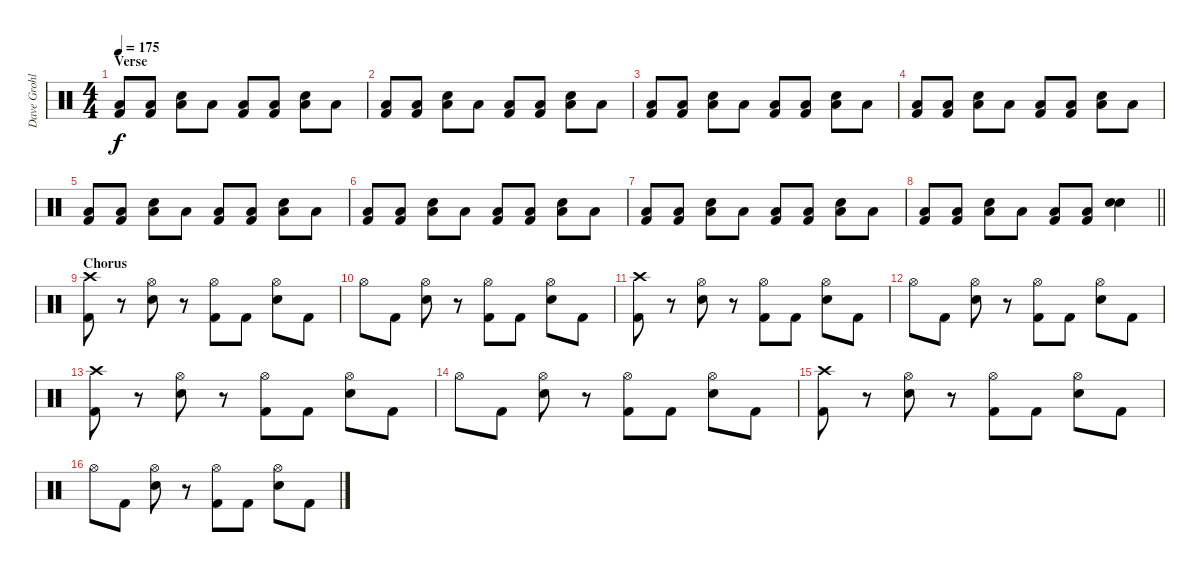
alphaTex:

\track ("Dave Grohl" "Dave Grohl") {solo instrument percussion}
\staff {score}
\articulation defaults
\ts (4 4)
\section ("" "Verse")
\tempo 175
\clef neutral
\ks c
("Low Tom (hit)" "Kick (hit) 2").8{dy f} ("Low Tom (hit)" "Kick (hit) 2").8 ("Electric Snare (hit)" "Low Tom (hit)").8 "Low Tom (hit)".8 ("Low Tom (hit)" "Kick (hit) 2").8 ("Low Tom (hit)" "Kick (hit) 2").8 ("Electric Snare (hit)" "Low Tom (hit)").8 "Low Tom (hit)".8 |
("Low Tom (hit)" "Kick (hit) 2").8 ("Low Tom (hit)" "Kick (hit) 2").8 ("Electric Snare (hit)" "Low Tom (hit)").8 "Low Tom (hit)".8 ("Low Tom (hit)" "Kick (hit) 2").8 ("Low Tom (hit)" "Kick (hit) 2").8 ("Electric Snare (hit)" "Low Tom (hit)").8 "Low Tom (hit)".8 |
("Low Tom (hit)" "Kick (hit) 2").8 ("Low Tom (hit)" "Kick (hit) 2").8 ("Electric Snare (hit)" "Low Tom (hit)").8 "Low Tom (hit)".8 ("Low Tom (hit)" "Kick (hit) 2").8 ("Low Tom (hit)" "Kick (hit) 2").8 ("Electric Snare (hit)" "Low Tom (hit)").8 "Low Tom (hit)".8 |
("Low Tom (hit)" "Kick (hit) 2").8 ("Low Tom (hit)" "Kick (hit) 2").8 ("Electric Snare (hit)" "Low Tom (hit)").8 "Low Tom (hit)".8 ("Low Tom (hit)" "Kick (hit) 2").8 ("Low Tom (hit)" "Kick (hit) 2").8 ("Electric Snare (hit)" "Low Tom (hit)").8 "Low Tom (hit)".8 |
("Low Tom (hit)" "Kick (hit) 2").8 ("Low Tom (hit)" "Kick (hit) 2").8 ("Electric Snare (hit)" "Low Tom (hit)").8 "Low Tom (hit)".8 ("Low Tom (hit)" "Kick (hit) 2").8 ("Low Tom (hit)" "Kick (hit) 2").8 ("Electric Snare (hit)" "Low Tom (hit)").8 "Low Tom (hit)".8 |
("Low Tom (hit)" "Kick (hit) 2").8 ("Low Tom (hit)" "Kick (hit) 2").8 ("Electric Snare (hit)" "Low Tom (hit)").8 "Low Tom (hit)".8 ("Low Tom (hit)" "Kick (hit) 2").8 ("Low Tom (hit)" "Kick (hit) 2").8 ("Electric Snare (hit)" "Low Tom (hit)").8 "Low Tom (hit)".8 |
("Low Tom (hit)" "Kick (hit) 2").8 ("Low Tom (hit)" "Kick (hit) 2").8 ("Electric Snare (hit)" "Low Tom (hit)").8 "Low Tom (hit)".8 ("Low Tom (hit)" "Kick (hit) 2").8 ("Low Tom (hit)" "Kick (hit) 2").8 ("Electric Snare (hit)" "Low Tom (hit)").8 "Low Tom (hit)".8 |
\barLineRight lightlight
("Low Tom (hit)" "Kick (hit) 2").8 ("Low Tom (hit)" "Kick (hit) 2").8 ("Electric Snare (hit)" "Low Tom (hit)").8 "Low Tom (hit)".8 ("Low Tom (hit)" "Kick (hit) 2").8 ("Low Tom (hit)" "Kick (hit) 2").8 ("Electric Snare (hit)" "Electric Snare (hit)").4 |
\section ("" "Chorus")
("Crash high (hit)" "Kick (hit) 2").8 r.8 ("Hi-Hat (open)" "Electric Snare (hit)").8 r.8 ("Hi-Hat (open)" "Kick (hit) 2").8 "Kick (hit) 2".8 ("Hi-Hat (open)" "Electric Snare (hit)").8 "Kick (hit) 2".8 |
"Hi-Hat (open)".8 "Kick (hit) 2".8 ("Hi-Hat (open)" "Electric Snare (hit)").8 r.8 ("Hi-Hat (open)" "Kick (hit) 2").8 "Kick (hit) 2".8 ("Hi-Hat (open)" "Electric Snare (hit)").8 "Kick (hit) 2".8 |
("Crash high (hit)" "Kick (hit) 2").8 r.8 ("Hi-Hat (open)" "Electric Snare (hit)").8 r.8 ("Hi-Hat (open)" "Kick (hit) 2").8 "Kick (hit) 2".8 ("Hi-Hat (open)" "Electric Snare (hit)").8 "Kick (hit) 2".8 |
"Hi-Hat (open)".8 "Kick (hit) 2".8 ("Hi-Hat (open)" "Electric Snare (hit)").8 r.8 ("Hi-Hat (open)" "Kick (hit) 2").8 "Kick (hit) 2".8 ("Hi-Hat (open)" "Electric Snare (hit)").8 "Kick (hit) 2".8 |
("Crash high (hit)" "Kick (hit) 2").8 r.8 ("Hi-Hat (open)" "Electric Snare (hit)").8 r.8 ("Hi-Hat (open)" "Kick (hit) 2").8 "Kick (hit) 2".8 ("Hi-Hat (open)" "Electric Snare (hit)").8 "Kick (hit) 2".8 |
"Hi-Hat (open)".8 "Kick (hit) 2".8 ("Hi-Hat (open)" "Electric Snare (hit)").8 r.8 ("Hi-Hat (open)" "Kick (hit) 2").8 "Kick (hit) 2".8 ("Hi-Hat (open)" "Electric Snare (hit)").8 "Kick (hit) 2".8 |
("Crash high (hit)" "Kick (hit) 2").8 r.8 ("Hi-Hat (open)" "Electric Snare (hit)").8 r.8 ("Hi-Hat (open)" "Kick (hit) 2").8 "Kick (hit) 2".8 ("Hi-Hat (open)" "Electric Snare (hit)").8 "Kick (hit) 2".8 |
"Hi-Hat (open)".8 "Kick (hit) 2".8 ("Hi-Hat (open)" "Electric Snare (hit)").8 r.8 ("Hi-Hat (open)" "Kick (hit) 2").8 "Kick (hit) 2".8 ("Hi-Hat (open)" "Electric Snare (hit)").8 "Kick (hit) 2".8
